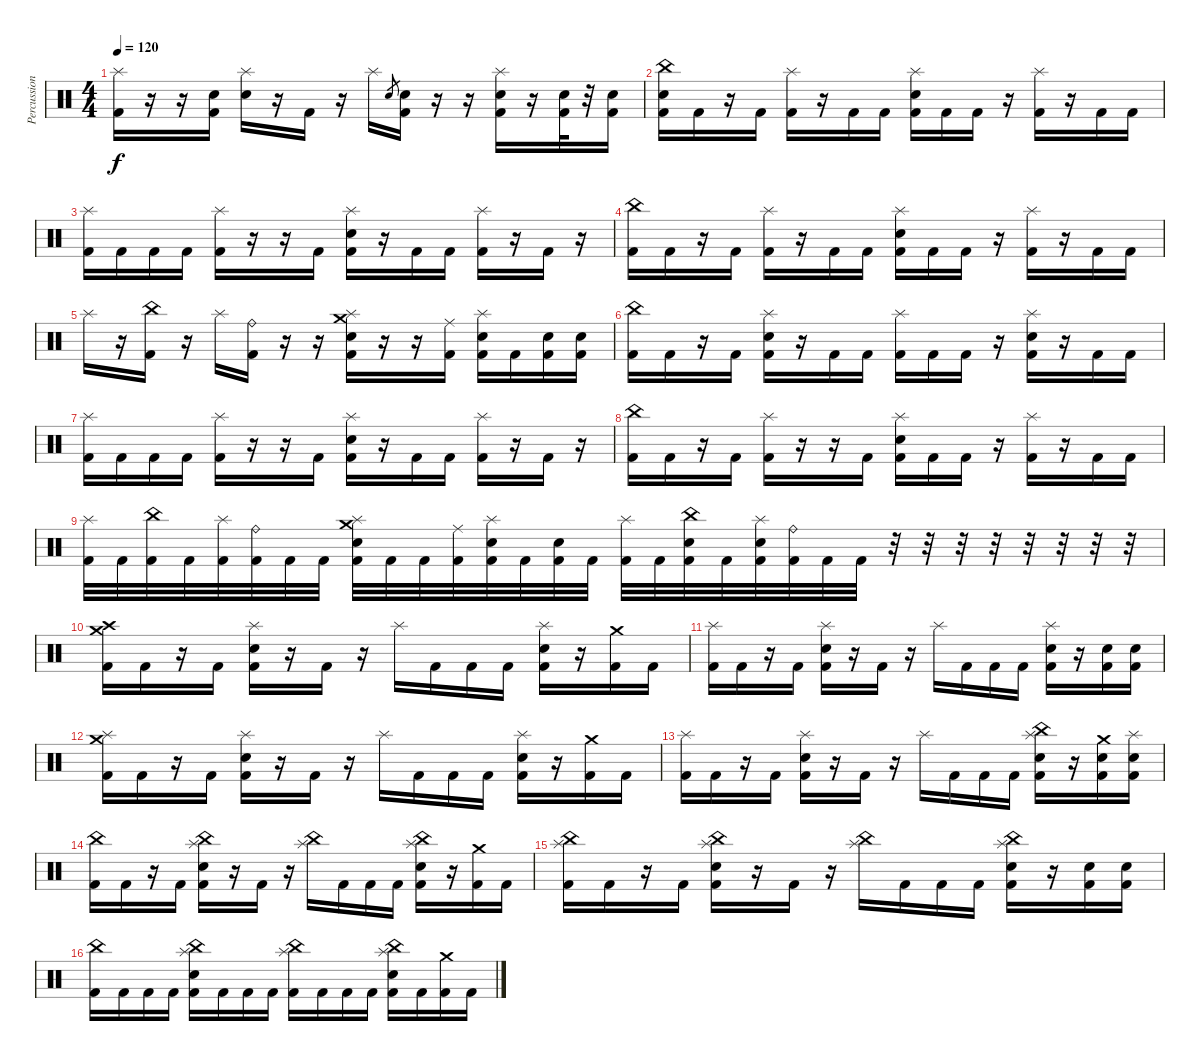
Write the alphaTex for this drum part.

\track ("Percussion" "Percussion") {instrument percussion}
\staff {score}
\articulation defaults
\ts (4 4)
\tempo 120
\clef neutral
\ks c
("Splash (hit)" "Kick (hit) 2").16{dy f} r.16 r.16 ("Electric Snare (hit)" "Kick (hit) 2").16 ("Splash (hit)" "Electric Snare (hit)").16 r.16 "Kick (hit) 2".16 r.16 "Splash (hit)".16 "Electric Snare (hit)".8{gr} ("Electric Snare (hit)" "Kick (hit) 2").16 r.16 r.16 ("Splash (hit)" "Electric Snare (hit)" "Kick (hit) 2").16 r.16 ("Electric Snare (hit)" "Kick (hit) 2").32 r.32 ("Electric Snare (hit)" "Kick (hit) 2").16 |
("China (hit)" "Electric Snare (hit)" "Kick (hit) 2").16 "Kick (hit) 2".16 r.16 "Kick (hit) 2".16 ("Splash (hit)" "Kick (hit) 2").16 r.16 "Kick (hit) 2".16 "Kick (hit) 2".16 ("Splash (hit)" "Electric Snare (hit)" "Kick (hit) 2").16 "Kick (hit) 2".16 "Kick (hit) 2".16 r.16 ("Splash (hit)" "Kick (hit) 2").16 r.16 "Kick (hit) 2".16 "Kick (hit) 2".16 |
("Splash (hit)" "Kick (hit) 2").16 "Kick (hit) 2".16 "Kick (hit) 2".16 "Kick (hit) 2".16 ("Splash (hit)" "Kick (hit) 2").16 r.16 r.16 "Kick (hit) 2".16 ("Splash (hit)" "Electric Snare (hit)" "Kick (hit) 2").16 r.16 "Kick (hit) 2".16 "Kick (hit) 2".16 ("Splash (hit)" "Kick (hit) 2").16 r.16 "Kick (hit) 2".16 r.16 |
("China (hit)" "Kick (hit) 2").16 "Kick (hit) 2".16 r.16 "Kick (hit) 2".16 ("Splash (hit)" "Kick (hit) 2").16 r.16 "Kick (hit) 2".16 "Kick (hit) 2".16 ("Splash (hit)" "Electric Snare (hit)" "Kick (hit) 2").16 "Kick (hit) 2".16 "Kick (hit) 2".16 r.16 ("Splash (hit)" "Kick (hit) 2").16 r.16 "Kick (hit) 2".16 "Kick (hit) 2".16 |
"Splash (hit)".16 r.16 ("China (hit)" "Kick (hit) 2").16 r.16 "Splash (hit)".16 ("Ride (bell)" "Kick (hit) 2").16 r.16 r.16 ("Crash medium (hit)" "Splash (hit)" "Electric Snare (hit)" "Kick (hit) 2").16 r.16 r.16 ("Ride (middle)" "Kick (hit) 2").16 ("Splash (hit)" "Electric Snare (hit)" "Kick (hit) 2").16 "Kick (hit) 2".16 ("Electric Snare (hit)" "Kick (hit) 2").16 ("Electric Snare (hit)" "Kick (hit) 2").16 |
("China (hit)" "Kick (hit) 2").16 "Kick (hit) 2".16 r.16 "Kick (hit) 2".16 ("Splash (hit)" "Electric Snare (hit)" "Kick (hit) 2").16 r.16 "Kick (hit) 2".16 "Kick (hit) 2".16 ("Splash (hit)" "Kick (hit) 2").16 "Kick (hit) 2".16 "Kick (hit) 2".16 r.16 ("Splash (hit)" "Electric Snare (hit)" "Kick (hit) 2").16 r.16 "Kick (hit) 2".16 "Kick (hit) 2".16 |
("Splash (hit)" "Kick (hit) 2").16 "Kick (hit) 2".16 "Kick (hit) 2".16 "Kick (hit) 2".16 ("Splash (hit)" "Kick (hit) 2").16 r.16 r.16 "Kick (hit) 2".16 ("Splash (hit)" "Electric Snare (hit)" "Kick (hit) 2").16 r.16 "Kick (hit) 2".16 "Kick (hit) 2".16 ("Splash (hit)" "Kick (hit) 2").16 r.16 "Kick (hit) 2".16 r.16 |
("China (hit)" "Kick (hit) 2").16 "Kick (hit) 2".16 r.16 "Kick (hit) 2".16 ("Splash (hit)" "Kick (hit) 2").16 r.16 r.16 "Kick (hit) 2".16 ("Splash (hit)" "Electric Snare (hit)" "Kick (hit) 2").16 "Kick (hit) 2".16 "Kick (hit) 2".16 r.16 ("Splash (hit)" "Kick (hit) 2").16 r.16 "Kick (hit) 2".16 "Kick (hit) 2".16 |
("Splash (hit)" "Kick (hit) 2").32 "Kick (hit) 2".32 ("China (hit)" "Kick (hit) 2").32 "Kick (hit) 2".32 ("Splash (hit)" "Kick (hit) 2").32 ("Ride (bell)" "Kick (hit) 2").32 "Kick (hit) 2".32 "Kick (hit) 2".32 ("Crash medium (hit)" "Splash (hit)" "Electric Snare (hit)" "Kick (hit) 2").32 "Kick (hit) 2".32 "Kick (hit) 2".32 ("Ride (middle)" "Kick (hit) 2").32 ("Splash (hit)" "Electric Snare (hit)" "Kick (hit) 2").32 "Kick (hit) 2".32 ("Electric Snare (hit)" "Kick (hit) 2").32 "Kick (hit) 2".32 ("Splash (hit)" "Kick (hit) 2").32 "Kick (hit) 2".32 ("China (hit)" "Electric Snare (hit)" "Kick (hit) 2").32 "Kick (hit) 2".32 ("Splash (hit)" "Electric Snare (hit)" "Kick (hit) 2").32 ("Ride (bell)" "Kick (hit) 2").32 "Kick (hit) 2".32 "Kick (hit) 2".32 r.32 r.32 r.32 r.32 r.32 r.32 r.32 r.32 |
("Crash medium (hit)" "Crash high (hit)" "Kick (hit) 2").16 "Kick (hit) 2".16 r.16 "Kick (hit) 2".16 ("Splash (hit)" "Electric Snare (hit)" "Kick (hit) 2").16 r.16 "Kick (hit) 2".16 r.16 "Splash (hit)".16 "Kick (hit) 2".16 "Kick (hit) 2".16 "Kick (hit) 2".16 ("Splash (hit)" "Electric Snare (hit)" "Kick (hit) 2").16 r.16 ("Crash medium (hit)" "Kick (hit) 2").16 "Kick (hit) 2".16 |
("Splash (hit)" "Kick (hit) 2").16 "Kick (hit) 2".16 r.16 "Kick (hit) 2".16 ("Splash (hit)" "Electric Snare (hit)" "Kick (hit) 2").16 r.16 "Kick (hit) 2".16 r.16 "Splash (hit)".16 "Kick (hit) 2".16 "Kick (hit) 2".16 "Kick (hit) 2".16 ("Splash (hit)" "Electric Snare (hit)" "Kick (hit) 2").16 r.16 ("Electric Snare (hit)" "Kick (hit) 2").16 ("Electric Snare (hit)" "Kick (hit) 2").16 |
("Splash (hit)" "Crash medium (hit)" "Kick (hit) 2").16 "Kick (hit) 2".16 r.16 "Kick (hit) 2".16 ("Splash (hit)" "Electric Snare (hit)" "Kick (hit) 2").16 r.16 "Kick (hit) 2".16 r.16 "Splash (hit)".16 "Kick (hit) 2".16 "Kick (hit) 2".16 "Kick (hit) 2".16 ("Splash (hit)" "Electric Snare (hit)" "Kick (hit) 2").16 r.16 ("Crash medium (hit)" "Kick (hit) 2").16 "Kick (hit) 2".16 |
("Splash (hit)" "Kick (hit) 2").16 "Kick (hit) 2".16 r.16 "Kick (hit) 2".16 ("Splash (hit)" "Electric Snare (hit)" "Kick (hit) 2").16 r.16 "Kick (hit) 2".16 r.16 "Splash (hit)".16 "Kick (hit) 2".16 "Kick (hit) 2".16 "Kick (hit) 2".16 ("China (hit)" "Splash (hit)" "Electric Snare (hit)" "Kick (hit) 2").16 r.16 ("Crash medium (hit)" "Electric Snare (hit)" "Kick (hit) 2").16 ("Splash (hit)" "Electric Snare (hit)" "Kick (hit) 2").16 |
("China (hit)" "Kick (hit) 2").16 "Kick (hit) 2".16 r.16 "Kick (hit) 2".16 ("China (hit)" "Splash (hit)" "Electric Snare (hit)" "Kick (hit) 2").16 r.16 "Kick (hit) 2".16 r.16 ("China (hit)" "Splash (hit)").16 "Kick (hit) 2".16 "Kick (hit) 2".16 "Kick (hit) 2".16 ("China (hit)" "Splash (hit)" "Electric Snare (hit)" "Kick (hit) 2").16 r.16 ("Crash medium (hit)" "Kick (hit) 2").16 "Kick (hit) 2".16 |
("China (hit)" "Splash (hit)" "Kick (hit) 2").16 "Kick (hit) 2".16 r.16 "Kick (hit) 2".16 ("China (hit)" "Splash (hit)" "Electric Snare (hit)" "Kick (hit) 2").16 r.16 "Kick (hit) 2".16 r.16 ("China (hit)" "Splash (hit)").16 "Kick (hit) 2".16 "Kick (hit) 2".16 "Kick (hit) 2".16 ("China (hit)" "Splash (hit)" "Electric Snare (hit)" "Kick (hit) 2").16 r.16 ("Electric Snare (hit)" "Kick (hit) 2").16 ("Electric Snare (hit)" "Kick (hit) 2").16 |
("China (hit)" "Kick (hit) 2").16 "Kick (hit) 2".16 "Kick (hit) 2".16 "Kick (hit) 2".16 ("China (hit)" "Splash (hit)" "Electric Snare (hit)" "Kick (hit) 2").16 "Kick (hit) 2".16 "Kick (hit) 2".16 "Kick (hit) 2".16 ("China (hit)" "Splash (hit)" "Kick (hit) 2").16 "Kick (hit) 2".16 "Kick (hit) 2".16 "Kick (hit) 2".16 ("China (hit)" "Splash (hit)" "Electric Snare (hit)" "Kick (hit) 2").16 "Kick (hit) 2".16 ("Crash medium (hit)" "Kick (hit) 2").16 "Kick (hit) 2".16
